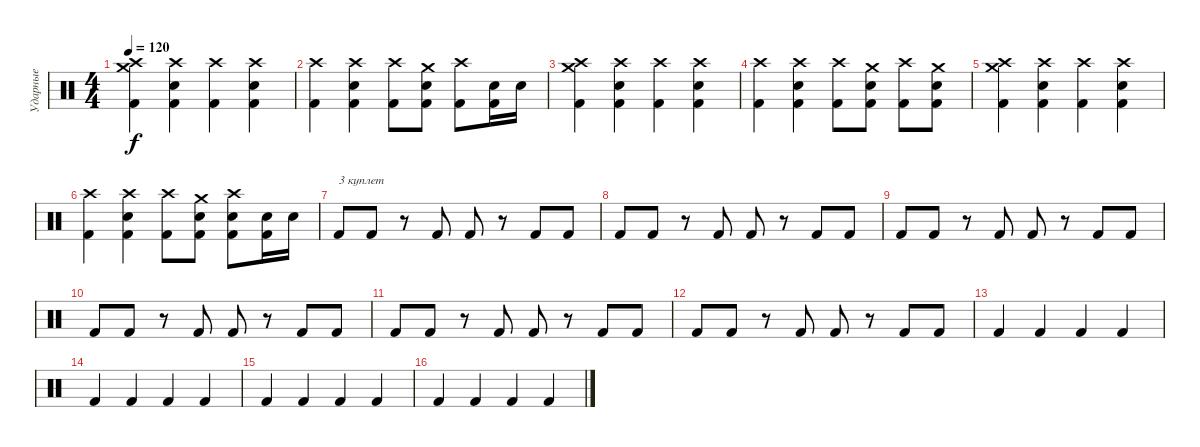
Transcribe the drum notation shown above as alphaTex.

\track ("Ударные" "Ударные") {instrument percussion}
\staff {score}
\articulation defaults
\ts (4 4)
\tempo 120
\clef neutral
\ks c
("Crash medium (hit)" "Crash high (hit)" "Kick (hit) 2").4{dy f} ("Crash high (hit)" "Snare (hit) 2" "Kick (hit) 2").4 ("Crash high (hit)" "Kick (hit) 2").4 ("Crash high (hit)" "Snare (hit) 2" "Kick (hit) 2").4 |
("Crash high (hit)" "Kick (hit) 2").4 ("Crash high (hit)" "Snare (hit) 2" "Kick (hit) 2").4 ("Crash high (hit)" "Kick (hit) 2").8 ("Crash medium (hit)" "Snare (hit) 2" "Kick (hit) 2").8 ("Crash high (hit)" "Kick (hit) 2").8 ("Snare (hit) 2" "Kick (hit) 2").16 "Snare (hit) 2".16 |
("Crash medium (hit)" "Crash high (hit)" "Kick (hit) 2").4 ("Crash high (hit)" "Snare (hit) 2" "Kick (hit) 2").4 ("Crash high (hit)" "Kick (hit) 2").4 ("Crash high (hit)" "Snare (hit) 2" "Kick (hit) 2").4 |
("Crash high (hit)" "Kick (hit) 2").4 ("Crash high (hit)" "Snare (hit) 2" "Kick (hit) 2").4 ("Crash high (hit)" "Kick (hit) 2").8 ("Crash medium (hit)" "Snare (hit) 2" "Kick (hit) 2").8 ("Crash high (hit)" "Kick (hit) 2").8 ("Crash medium (hit)" "Snare (hit) 2" "Kick (hit) 2").8 |
("Crash medium (hit)" "Crash high (hit)" "Kick (hit) 2").4 ("Crash high (hit)" "Snare (hit) 2" "Kick (hit) 2").4 ("Crash high (hit)" "Kick (hit) 2").4 ("Crash high (hit)" "Snare (hit) 2" "Kick (hit) 2").4 |
("Crash high (hit)" "Kick (hit) 2").4 ("Crash high (hit)" "Snare (hit) 2" "Kick (hit) 2").4 ("Crash high (hit)" "Kick (hit) 2").8 ("Crash medium (hit)" "Snare (hit) 2" "Kick (hit) 2").8 ("Crash high (hit)" "Snare (hit) 2" "Kick (hit) 2").8 ("Snare (hit) 2" "Kick (hit) 2").16 "Snare (hit) 2".16 |
"Kick (hit) 2".8{txt "3 куплет"} "Kick (hit) 2".8 r.8 "Kick (hit) 2".8 "Kick (hit) 2".8 r.8 "Kick (hit) 2".8 "Kick (hit) 2".8 |
"Kick (hit) 2".8 "Kick (hit) 2".8 r.8 "Kick (hit) 2".8 "Kick (hit) 2".8 r.8 "Kick (hit) 2".8 "Kick (hit) 2".8 |
"Kick (hit) 2".8 "Kick (hit) 2".8 r.8 "Kick (hit) 2".8 "Kick (hit) 2".8 r.8 "Kick (hit) 2".8 "Kick (hit) 2".8 |
"Kick (hit) 2".8 "Kick (hit) 2".8 r.8 "Kick (hit) 2".8 "Kick (hit) 2".8 r.8 "Kick (hit) 2".8 "Kick (hit) 2".8 |
"Kick (hit) 2".8 "Kick (hit) 2".8 r.8 "Kick (hit) 2".8 "Kick (hit) 2".8 r.8 "Kick (hit) 2".8 "Kick (hit) 2".8 |
"Kick (hit) 2".8 "Kick (hit) 2".8 r.8 "Kick (hit) 2".8 "Kick (hit) 2".8 r.8 "Kick (hit) 2".8 "Kick (hit) 2".8 |
"Kick (hit) 2".4 "Kick (hit) 2".4 "Kick (hit) 2".4 "Kick (hit) 2".4 |
"Kick (hit) 2".4 "Kick (hit) 2".4 "Kick (hit) 2".4 "Kick (hit) 2".4 |
"Kick (hit) 2".4 "Kick (hit) 2".4 "Kick (hit) 2".4 "Kick (hit) 2".4 |
"Kick (hit) 2".4 "Kick (hit) 2".4 "Kick (hit) 2".4 "Kick (hit) 2".4
